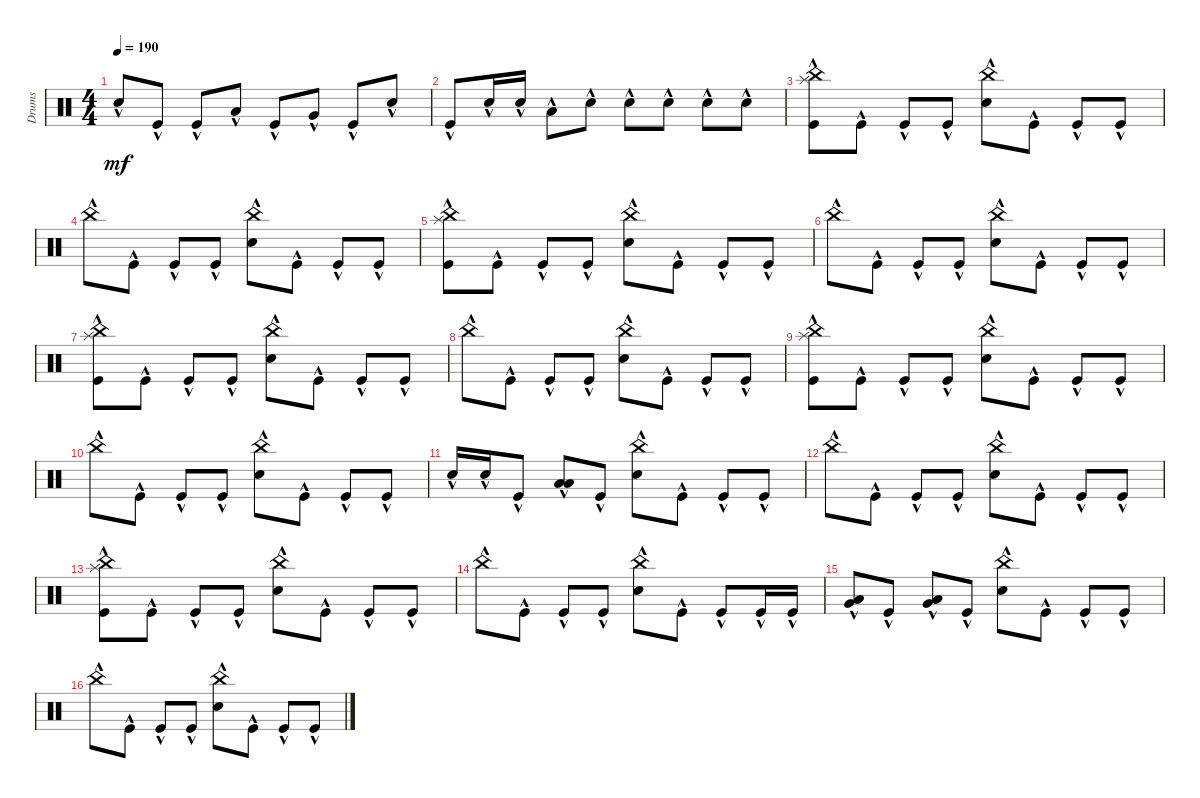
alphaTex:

\track ("Drums" "Drums") {instrument percussion}
\staff {score}
\articulation defaults
\ts (4 4)
\tempo 190
\clef neutral
\ks c "Snare (hit) 2"{hac}.8{dy mf} "Kick (hit)"{hac}.8 "Kick (hit)"{hac}.8 "Low Tom (hit)"{hac}.8 "Kick (hit)"{hac}.8 "Very Low Tom (hit)"{hac}.8 "Kick (hit)"{hac}.8 "Snare (hit) 2"{hac}.8
|
"Kick (hit)"{hac}.8 "Snare (hit) 2"{hac}.16 "Snare (hit) 2"{hac}.16 "Low Tom (hit)"{hac}.8 "Snare (hit) 2"{hac}.8 "Snare (hit) 2"{hac}.8 "Snare (hit) 2"{hac}.8 "Snare (hit) 2"{hac}.8 "Snare (hit) 2"{hac}.8 |
("Kick (hit)"{hac} "Splash (hit)"{hac} "China (hit)"{hac}).8 "Kick (hit)"{hac}.8 "Kick (hit)"{hac}.8 "Kick (hit)"{hac}.8 ("Snare (hit) 2"{hac} "China (hit)"{hac}).8 "Kick (hit)"{hac}.8 "Kick (hit)"{hac}.8 "Kick (hit)"{hac}.8 |
"China (hit)"{hac}.8 "Kick (hit)"{hac}.8 "Kick (hit)"{hac}.8 "Kick (hit)"{hac}.8 ("Snare (hit) 2"{hac} "China (hit)"{hac}).8 "Kick (hit)"{hac}.8 "Kick (hit)"{hac}.8 "Kick (hit)"{hac}.8 |
("Kick (hit)"{hac} "Splash (hit)"{hac} "China (hit)"{hac}).8 "Kick (hit)"{hac}.8 "Kick (hit)"{hac}.8 "Kick (hit)"{hac}.8 ("Snare (hit) 2"{hac} "China (hit)"{hac}).8 "Kick (hit)"{hac}.8 "Kick (hit)"{hac}.8 "Kick (hit)"{hac}.8 |
"China (hit)"{hac}.8 "Kick (hit)"{hac}.8 "Kick (hit)"{hac}.8 "Kick (hit)"{hac}.8 ("Snare (hit) 2"{hac} "China (hit)"{hac}).8 "Kick (hit)"{hac}.8 "Kick (hit)"{hac}.8 "Kick (hit)"{hac}.8 |
("Kick (hit)"{hac} "Splash (hit)"{hac} "China (hit)"{hac}).8 "Kick (hit)"{hac}.8 "Kick (hit)"{hac}.8 "Kick (hit)"{hac}.8 ("Snare (hit) 2"{hac} "China (hit)"{hac}).8 "Kick (hit)"{hac}.8 "Kick (hit)"{hac}.8 "Kick (hit)"{hac}.8 |
"China (hit)"{hac}.8 "Kick (hit)"{hac}.8 "Kick (hit)"{hac}.8 "Kick (hit)"{hac}.8 ("Snare (hit) 2"{hac} "China (hit)"{hac}).8 "Kick (hit)"{hac}.8 "Kick (hit)"{hac}.8 "Kick (hit)"{hac}.8 |
("Kick (hit)"{hac} "Splash (hit)"{hac} "China (hit)"{hac}).8 "Kick (hit)"{hac}.8 "Kick (hit)"{hac}.8 "Kick (hit)"{hac}.8 ("Snare (hit) 2"{hac} "China (hit)"{hac}).8 "Kick (hit)"{hac}.8 "Kick (hit)"{hac}.8 "Kick (hit)"{hac}.8 |
"China (hit)"{hac}.8 "Kick (hit)"{hac}.8 "Kick (hit)"{hac}.8 "Kick (hit)"{hac}.8 ("Snare (hit) 2"{hac} "China (hit)"{hac}).8 "Kick (hit)"{hac}.8 "Kick (hit)"{hac}.8 "Kick (hit)"{hac}.8 |
"Snare (hit) 2"{hac}.16 "Snare (hit) 2"{hac}.16 "Kick (hit)"{hac}.8 ("Low Tom (hit)"{hac} "Low Floor Tom (hit)"{hac}).8 "Kick (hit)"{hac}.8 ("Snare (hit) 2"{hac} "China (hit)"{hac}).8 "Kick (hit)"{hac}.8 "Kick (hit)"{hac}.8 "Kick (hit)"{hac}.8 |
"China (hit)"{hac}.8 "Kick (hit)"{hac}.8 "Kick (hit)"{hac}.8 "Kick (hit)"{hac}.8 ("Snare (hit) 2"{hac} "China (hit)"{hac}).8 "Kick (hit)"{hac}.8 "Kick (hit)"{hac}.8 "Kick (hit)"{hac}.8 |
("Kick (hit)"{hac} "Splash (hit)"{hac} "China (hit)"{hac}).8 "Kick (hit)"{hac}.8 "Kick (hit)"{hac}.8 "Kick (hit)"{hac}.8 ("Snare (hit) 2"{hac} "China (hit)"{hac}).8 "Kick (hit)"{hac}.8 "Kick (hit)"{hac}.8 "Kick (hit)"{hac}.8 |
"China (hit)"{hac}.8 "Kick (hit)"{hac}.8 "Kick (hit)"{hac}.8 "Kick (hit)"{hac}.8 ("Snare (hit) 2"{hac} "China (hit)"{hac}).8 "Kick (hit)"{hac}.8 "Kick (hit)"{hac}.8 "Kick (hit)"{hac}.16 "Kick (hit)"{hac}.16 |
("Low Tom (hit)"{hac} "Very Low Tom (hit)"{hac}).8 "Kick (hit)"{hac}.8 ("Very Low Tom (hit)"{hac} "Low Floor Tom (hit)"{hac}).8 "Kick (hit)"{hac}.8 ("Snare (hit) 2"{hac} "China (hit)"{hac}).8 "Kick (hit)"{hac}.8 "Kick (hit)"{hac}.8 "Kick (hit)"{hac}.8 |
"China (hit)"{hac}.8 "Kick (hit)"{hac}.8 "Kick (hit)"{hac}.8 "Kick (hit)"{hac}.8 ("Snare (hit) 2"{hac} "China (hit)"{hac}).8 "Kick (hit)"{hac}.8 "Kick (hit)"{hac}.8 "Kick (hit)"{hac}.8
